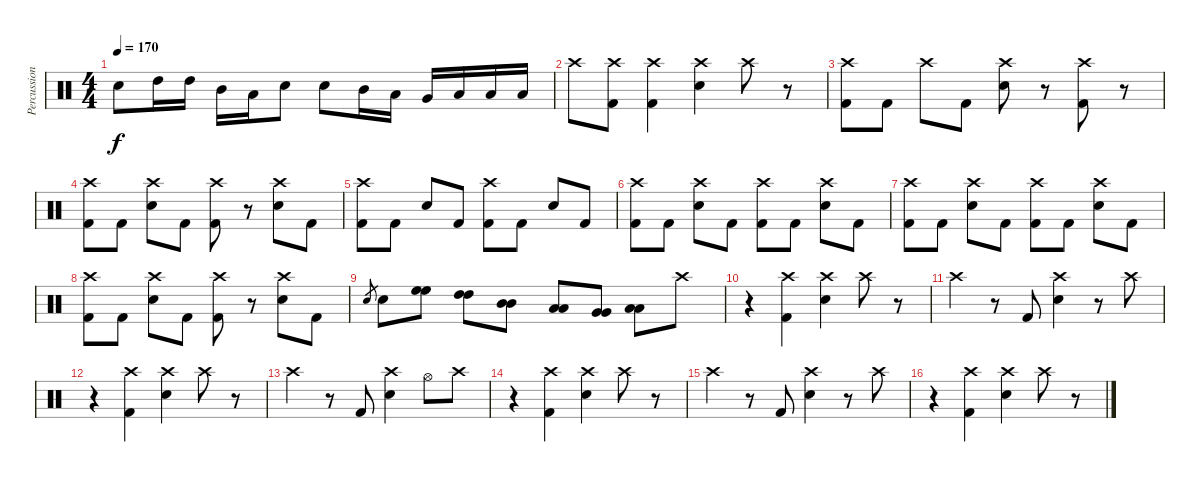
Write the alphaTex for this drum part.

\track ("Percussions" "Percussion") {instrument percussion}
\staff {score}
\articulation defaults
\ts (4 4)
\tempo 170
\clef neutral
\ks c "Electric Snare (hit)".8{dy f} "High Tom (hit)".16 "High Tom (hit)".16 "Mid Tom (hit)".16 "Low Tom (hit)".16 "Electric Snare (hit)".8 "Electric Snare (hit)".8 "Mid Tom (hit)".16 "Low Tom (hit)".16 "Very Low Tom (hit)".16 "Low Floor Tom (hit)".16 "Low Floor Tom (hit)".16 "Low Floor Tom (hit)".16
|
"Crash high (hit)".8 ("Crash high (hit)" "Kick (hit) 2").8 ("Crash high (hit)" "Kick (hit) 2").4 ("Crash high (hit)" "Electric Snare (hit)").4 "Crash high (hit)".8 r.8 |
("Crash high (hit)" "Kick (hit) 2").8 "Kick (hit) 2".8 "Crash high (hit)".8 "Kick (hit) 2".8 ("Crash high (hit)" "Electric Snare (hit)").8 r.8 ("Crash high (hit)" "Kick (hit) 2").8 r.8 |
("Crash high (hit)" "Kick (hit) 2").8 "Kick (hit) 2".8 ("Crash high (hit)" "Electric Snare (hit)").8 "Kick (hit) 2".8 ("Crash high (hit)" "Kick (hit) 2").8 r.8 ("Crash high (hit)" "Electric Snare (hit)").8 "Kick (hit) 2".8 |
("Crash high (hit)" "Kick (hit) 2").8 "Kick (hit) 2".8 "Electric Snare (hit)".8 "Kick (hit) 2".8 ("Crash high (hit)" "Kick (hit) 2").8 "Kick (hit) 2".8 "Electric Snare (hit)".8 "Kick (hit) 2".8 |
("Crash high (hit)" "Kick (hit) 2").8 "Kick (hit) 2".8 ("Crash high (hit)" "Electric Snare (hit)").8 "Kick (hit) 2".8 ("Crash high (hit)" "Kick (hit) 2").8 "Kick (hit) 2".8 ("Crash high (hit)" "Electric Snare (hit)").8 "Kick (hit) 2".8 |
("Crash high (hit)" "Kick (hit) 2").8 "Kick (hit) 2".8 ("Crash high (hit)" "Electric Snare (hit)").8 "Kick (hit) 2".8 ("Crash high (hit)" "Kick (hit) 2").8 "Kick (hit) 2".8 ("Crash high (hit)" "Electric Snare (hit)").8 "Kick (hit) 2".8 |
("Crash high (hit)" "Kick (hit) 2").8 "Kick (hit) 2".8 ("Crash high (hit)" "Electric Snare (hit)").8 "Kick (hit) 2".8 ("Crash high (hit)" "Kick (hit) 2").8 r.8 ("Crash high (hit)" "Electric Snare (hit)").8 "Kick (hit) 2".8 |
"Electric Snare (hit)".8{gr} "Electric Snare (hit)".8 ("High Floor Tom (hit)" "High Floor Tom (hit)").8 ("High Tom (hit)" "High Tom (hit)").8 ("Mid Tom (hit)" "Mid Tom (hit)").8 ("Low Tom (hit)" "Low Tom (hit)").8 ("Very Low Tom (hit)" "Very Low Tom (hit)").8 ("Low Floor Tom (hit)" "Low Floor Tom (hit)").8 "Crash high (hit)".8 |
r.4 ("Crash high (hit)" "Kick (hit) 2").4 ("Crash high (hit)" "Electric Snare (hit)").4 "Crash high (hit)".8 r.8 |
"Crash high (hit)".4 r.8 "Kick (hit) 2".8 ("Crash high (hit)" "Electric Snare (hit)").4 r.8 "Crash high (hit)".8 |
r.4 ("Crash high (hit)" "Kick (hit) 2").4 ("Crash high (hit)" "Electric Snare (hit)").4 "Crash high (hit)".8 r.8 |
"Crash high (hit)".4 r.8 "Kick (hit) 2".8 ("Crash high (hit)" "Electric Snare (hit)").4 "Hi-Hat (open)".8 "Crash high (hit)".8 |
r.4 ("Crash high (hit)" "Kick (hit) 2").4 ("Crash high (hit)" "Electric Snare (hit)").4 "Crash high (hit)".8 r.8 |
"Crash high (hit)".4 r.8 "Kick (hit) 2".8 ("Crash high (hit)" "Electric Snare (hit)").4 r.8 "Crash high (hit)".8 |
r.4 ("Crash high (hit)" "Kick (hit) 2").4 ("Crash high (hit)" "Electric Snare (hit)").4 "Crash high (hit)".8 r.8
